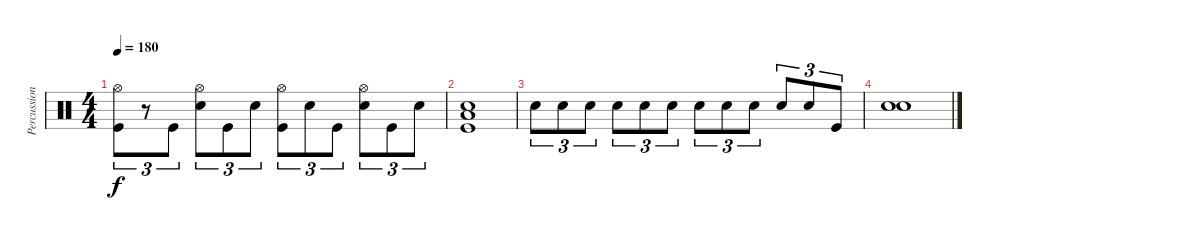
\track ("Percussions" "Percussion") {instrument percussion}
\staff {score}
\articulation defaults
\ts (4 4)
\tempo 180
\clef neutral
\ks c
("Hi-Hat (open)" "Kick (hit)").8{tu (3 2) dy f} r.8{tu (3 2)} "Kick (hit)".8{tu (3 2)} ("Hi-Hat (open)" "Electric Snare (hit)").8{tu (3 2)} "Kick (hit)".8{tu (3 2)} "Electric Snare (hit)".8{tu (3 2)} ("Hi-Hat (open)" "Kick (hit)").8{tu (3 2)} "Electric Snare (hit)".8{tu (3 2)} "Kick (hit)".8{tu (3 2)} ("Hi-Hat (open)" "Electric Snare (hit)").8{tu (3 2)} "Kick (hit)".8{tu (3 2)} "Electric Snare (hit)".8{tu (3 2)} |
("Electric Snare (hit)" "Low Floor Tom (hit)" "Kick (hit)").1 |
"Electric Snare (hit)".8{tu (3 2)} "Electric Snare (hit)".8{tu (3 2)} "Electric Snare (hit)".8{tu (3 2)} "Electric Snare (hit)".8{tu (3 2)} "Electric Snare (hit)".8{tu (3 2)} "Electric Snare (hit)".8{tu (3 2)} "Electric Snare (hit)".8{tu (3 2)} "Electric Snare (hit)".8{tu (3 2)} "Electric Snare (hit)".8{tu (3 2)} "Electric Snare (hit)".8{tu (3 2)} "Electric Snare (hit)".8{tu (3 2)} "Kick (hit)".8{tu (3 2)} |
("Electric Snare (hit)" "Electric Snare (hit)").1{bd 120}
